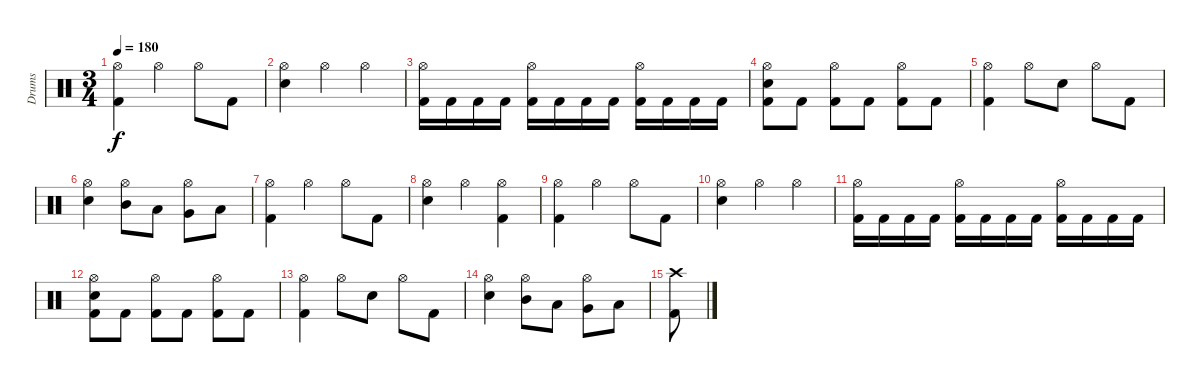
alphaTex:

\track ("Drums" "Drums") {instrument percussion}
\staff {score}
\articulation defaults
\ts (3 4)
\tempo 180
\clef neutral
\ks c
("Hi-Hat (open)" "Kick (hit) 2").4{dy f} "Hi-Hat (open)".4 "Hi-Hat (open)".8 "Kick (hit) 2".8 |
("Hi-Hat (open)" "Electric Snare (hit)").4 "Hi-Hat (open)".4 "Hi-Hat (open)".4 |
("Hi-Hat (open)" "Kick (hit) 2").16 "Kick (hit) 2".16 "Kick (hit) 2".16 "Kick (hit) 2".16 ("Hi-Hat (open)" "Kick (hit) 2").16 "Kick (hit) 2".16 "Kick (hit) 2".16 "Kick (hit) 2".16 ("Hi-Hat (open)" "Kick (hit) 2").16 "Kick (hit) 2".16 "Kick (hit) 2".16 "Kick (hit) 2".16 |
("Hi-Hat (open)" "Electric Snare (hit)" "Kick (hit) 2").8 "Kick (hit) 2".8 ("Hi-Hat (open)" "Kick (hit) 2").8 "Kick (hit) 2".8 ("Hi-Hat (open)" "Kick (hit) 2").8 "Kick (hit) 2".8 |
("Hi-Hat (open)" "Kick (hit) 2").4 "Hi-Hat (open)".8 "Electric Snare (hit)".8 "Hi-Hat (open)".8 "Kick (hit) 2".8 |
("Hi-Hat (open)" "Electric Snare (hit)").4 ("Hi-Hat (open)" "Mid Tom (hit)").8 "Low Tom (hit)".8 ("Hi-Hat (open)" "Very Low Tom (hit)").8 "Low Floor Tom (hit)".8 |
("Hi-Hat (open)" "Kick (hit) 2").4 "Hi-Hat (open)".4 "Hi-Hat (open)".8 "Kick (hit) 2".8 |
("Hi-Hat (open)" "Electric Snare (hit)").4 "Hi-Hat (open)".4 ("Hi-Hat (open)" "Kick (hit) 2").4 |
("Hi-Hat (open)" "Kick (hit) 2").4 "Hi-Hat (open)".4 "Hi-Hat (open)".8 "Kick (hit) 2".8 |
("Hi-Hat (open)" "Electric Snare (hit)").4 "Hi-Hat (open)".4 "Hi-Hat (open)".4 |
("Hi-Hat (open)" "Kick (hit) 2").16 "Kick (hit) 2".16 "Kick (hit) 2".16 "Kick (hit) 2".16 ("Hi-Hat (open)" "Kick (hit) 2").16 "Kick (hit) 2".16 "Kick (hit) 2".16 "Kick (hit) 2".16 ("Hi-Hat (open)" "Kick (hit) 2").16 "Kick (hit) 2".16 "Kick (hit) 2".16 "Kick (hit) 2".16 |
("Hi-Hat (open)" "Electric Snare (hit)" "Kick (hit) 2").8 "Kick (hit) 2".8 ("Hi-Hat (open)" "Kick (hit) 2").8 "Kick (hit) 2".8 ("Hi-Hat (open)" "Kick (hit) 2").8 "Kick (hit) 2".8 |
("Hi-Hat (open)" "Kick (hit) 2").4 "Hi-Hat (open)".8 "Electric Snare (hit)".8 "Hi-Hat (open)".8 "Kick (hit) 2".8 |
("Hi-Hat (open)" "Electric Snare (hit)").4 ("Hi-Hat (open)" "Mid Tom (hit)").8 "Low Tom (hit)".8 ("Hi-Hat (open)" "Very Low Tom (hit)").8 "Low Floor Tom (hit)".8 |
("Crash high (hit)" "Kick (hit) 2").8
